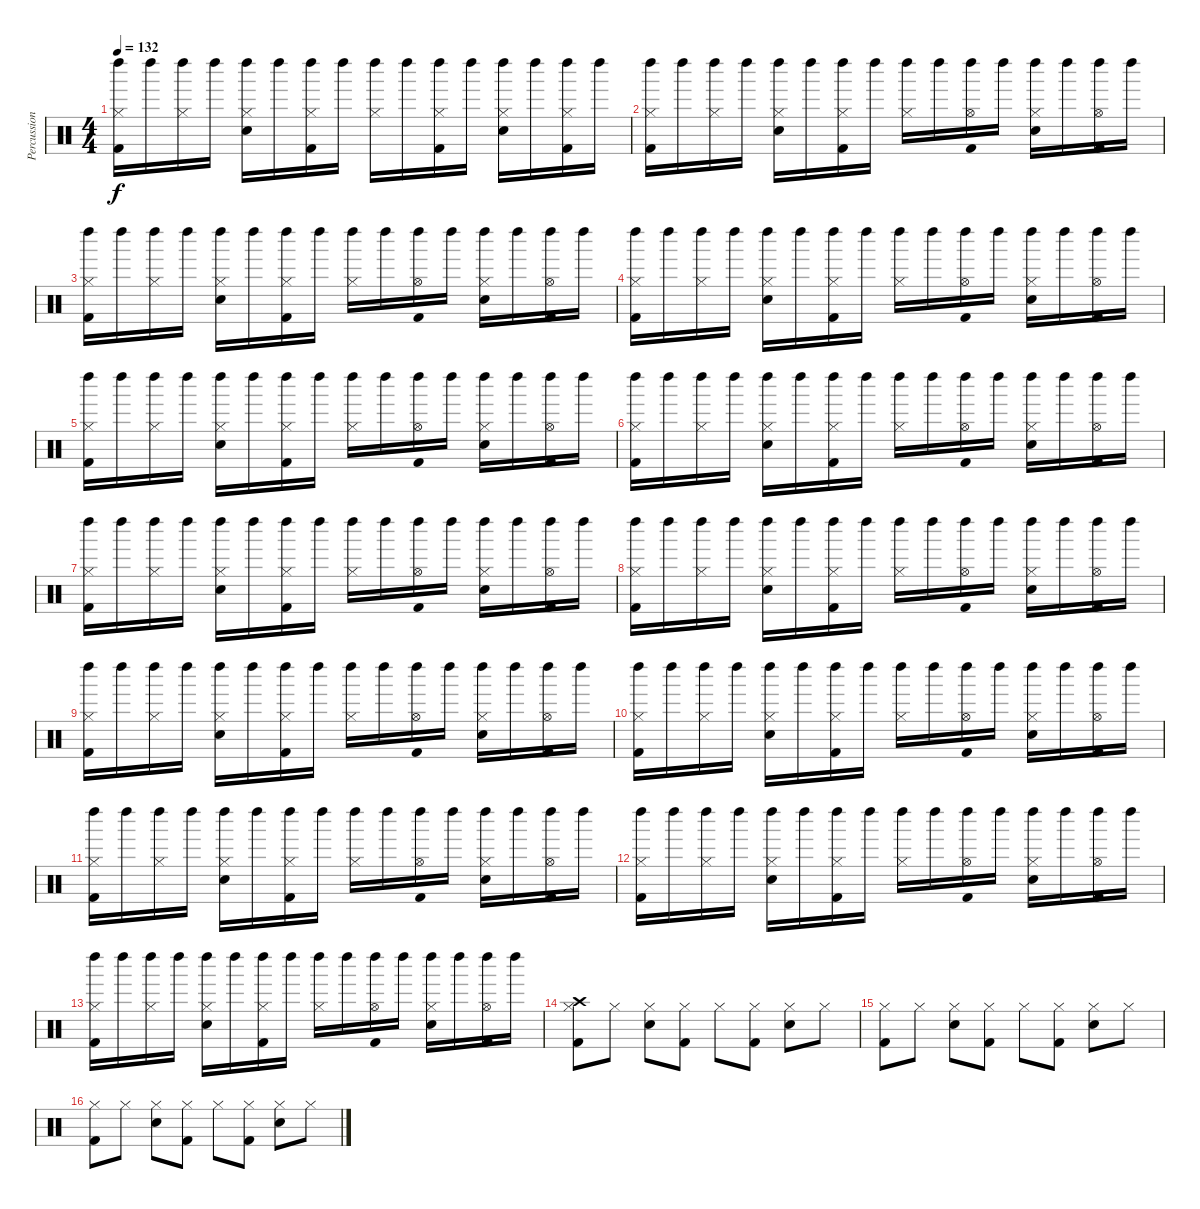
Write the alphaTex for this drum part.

\track ("Percussion" "Percussion") {instrument percussion}
\staff {score}
\articulation defaults
\ts (4 4)
\tempo 132
\clef neutral
\ks c
("Left Maraca (hit)" "Hi-Hat (closed)" "Kick (hit) 2").16{dy f} "Left Maraca (hit)".16 ("Left Maraca (hit)" "Hi-Hat (closed)").16 "Left Maraca (hit)".16 ("Left Maraca (hit)" "Hi-Hat (closed)" "Snare (hit) 2").16 "Left Maraca (hit)".16 ("Left Maraca (hit)" "Hi-Hat (closed)" "Kick (hit) 2").16 "Left Maraca (hit)".16 ("Left Maraca (hit)" "Hi-Hat (closed)").16 "Left Maraca (hit)".16 ("Left Maraca (hit)" "Hi-Hat (closed)" "Kick (hit) 2").16 "Left Maraca (hit)".16 ("Left Maraca (hit)" "Hi-Hat (closed)" "Snare (hit) 2").16 "Left Maraca (hit)".16 ("Left Maraca (hit)" "Hi-Hat (closed)" "Kick (hit) 2").16 "Left Maraca (hit)".16 |
("Left Maraca (hit)" "Hi-Hat (closed)" "Kick (hit) 2").16 "Left Maraca (hit)".16 ("Left Maraca (hit)" "Hi-Hat (closed)").16 "Left Maraca (hit)".16 ("Left Maraca (hit)" "Hi-Hat (closed)" "Snare (hit) 2").16 "Left Maraca (hit)".16 ("Left Maraca (hit)" "Hi-Hat (closed)" "Kick (hit) 2").16 "Left Maraca (hit)".16 ("Left Maraca (hit)" "Hi-Hat (closed)").16 "Left Maraca (hit)".16 ("Left Maraca (hit)" "Hi-Hat (open)" "Kick (hit) 2").16 "Left Maraca (hit)".16 ("Left Maraca (hit)" "Hi-Hat (closed)" "Snare (hit) 2").16 "Left Maraca (hit)".16 ("Left Maraca (hit)" "Hi-Hat (open)" "Kick (hit) 2").16 "Left Maraca (hit)".16 |
("Left Maraca (hit)" "Hi-Hat (closed)" "Kick (hit) 2").16 "Left Maraca (hit)".16 ("Left Maraca (hit)" "Hi-Hat (closed)").16 "Left Maraca (hit)".16 ("Left Maraca (hit)" "Hi-Hat (closed)" "Snare (hit) 2").16 "Left Maraca (hit)".16 ("Left Maraca (hit)" "Hi-Hat (closed)" "Kick (hit) 2").16 "Left Maraca (hit)".16 ("Left Maraca (hit)" "Hi-Hat (closed)").16 "Left Maraca (hit)".16 ("Left Maraca (hit)" "Hi-Hat (open)" "Kick (hit) 2").16 "Left Maraca (hit)".16 ("Left Maraca (hit)" "Hi-Hat (closed)" "Snare (hit) 2").16 "Left Maraca (hit)".16 ("Left Maraca (hit)" "Hi-Hat (open)" "Kick (hit) 2").16 "Left Maraca (hit)".16 |
("Left Maraca (hit)" "Hi-Hat (closed)" "Kick (hit) 2").16 "Left Maraca (hit)".16 ("Left Maraca (hit)" "Hi-Hat (closed)").16 "Left Maraca (hit)".16 ("Left Maraca (hit)" "Hi-Hat (closed)" "Snare (hit) 2").16 "Left Maraca (hit)".16 ("Left Maraca (hit)" "Hi-Hat (closed)" "Kick (hit) 2").16 "Left Maraca (hit)".16 ("Left Maraca (hit)" "Hi-Hat (closed)").16 "Left Maraca (hit)".16 ("Left Maraca (hit)" "Hi-Hat (open)" "Kick (hit) 2").16 "Left Maraca (hit)".16 ("Left Maraca (hit)" "Hi-Hat (closed)" "Snare (hit) 2").16 "Left Maraca (hit)".16 ("Left Maraca (hit)" "Hi-Hat (open)" "Kick (hit) 2").16 "Left Maraca (hit)".16 |
("Left Maraca (hit)" "Hi-Hat (closed)" "Kick (hit) 2").16 "Left Maraca (hit)".16 ("Left Maraca (hit)" "Hi-Hat (closed)").16 "Left Maraca (hit)".16 ("Left Maraca (hit)" "Hi-Hat (closed)" "Snare (hit) 2").16 "Left Maraca (hit)".16 ("Left Maraca (hit)" "Hi-Hat (closed)" "Kick (hit) 2").16 "Left Maraca (hit)".16 ("Left Maraca (hit)" "Hi-Hat (closed)").16 "Left Maraca (hit)".16 ("Left Maraca (hit)" "Hi-Hat (open)" "Kick (hit) 2").16 "Left Maraca (hit)".16 ("Left Maraca (hit)" "Hi-Hat (closed)" "Snare (hit) 2").16 "Left Maraca (hit)".16 ("Left Maraca (hit)" "Hi-Hat (open)" "Kick (hit) 2").16 "Left Maraca (hit)".16 |
("Left Maraca (hit)" "Hi-Hat (closed)" "Kick (hit) 2").16 "Left Maraca (hit)".16 ("Left Maraca (hit)" "Hi-Hat (closed)").16 "Left Maraca (hit)".16 ("Left Maraca (hit)" "Hi-Hat (closed)" "Snare (hit) 2").16 "Left Maraca (hit)".16 ("Left Maraca (hit)" "Hi-Hat (closed)" "Kick (hit) 2").16 "Left Maraca (hit)".16 ("Left Maraca (hit)" "Hi-Hat (closed)").16 "Left Maraca (hit)".16 ("Left Maraca (hit)" "Hi-Hat (open)" "Kick (hit) 2").16 "Left Maraca (hit)".16 ("Left Maraca (hit)" "Hi-Hat (closed)" "Snare (hit) 2").16 "Left Maraca (hit)".16 ("Left Maraca (hit)" "Hi-Hat (open)" "Kick (hit) 2").16 "Left Maraca (hit)".16 |
("Left Maraca (hit)" "Hi-Hat (closed)" "Kick (hit) 2").16 "Left Maraca (hit)".16 ("Left Maraca (hit)" "Hi-Hat (closed)").16 "Left Maraca (hit)".16 ("Left Maraca (hit)" "Hi-Hat (closed)" "Snare (hit) 2").16 "Left Maraca (hit)".16 ("Left Maraca (hit)" "Hi-Hat (closed)" "Kick (hit) 2").16 "Left Maraca (hit)".16 ("Left Maraca (hit)" "Hi-Hat (closed)").16 "Left Maraca (hit)".16 ("Left Maraca (hit)" "Hi-Hat (open)" "Kick (hit) 2").16 "Left Maraca (hit)".16 ("Left Maraca (hit)" "Hi-Hat (closed)" "Snare (hit) 2").16 "Left Maraca (hit)".16 ("Left Maraca (hit)" "Hi-Hat (open)" "Kick (hit) 2").16 "Left Maraca (hit)".16 |
("Left Maraca (hit)" "Hi-Hat (closed)" "Kick (hit) 2").16 "Left Maraca (hit)".16 ("Left Maraca (hit)" "Hi-Hat (closed)").16 "Left Maraca (hit)".16 ("Left Maraca (hit)" "Hi-Hat (closed)" "Snare (hit) 2").16 "Left Maraca (hit)".16 ("Left Maraca (hit)" "Hi-Hat (closed)" "Kick (hit) 2").16 "Left Maraca (hit)".16 ("Left Maraca (hit)" "Hi-Hat (closed)").16 "Left Maraca (hit)".16 ("Left Maraca (hit)" "Hi-Hat (open)" "Kick (hit) 2").16 "Left Maraca (hit)".16 ("Left Maraca (hit)" "Hi-Hat (closed)" "Snare (hit) 2").16 "Left Maraca (hit)".16 ("Left Maraca (hit)" "Hi-Hat (open)" "Kick (hit) 2").16 "Left Maraca (hit)".16 |
("Left Maraca (hit)" "Hi-Hat (closed)" "Kick (hit) 2").16 "Left Maraca (hit)".16 ("Left Maraca (hit)" "Hi-Hat (closed)").16 "Left Maraca (hit)".16 ("Left Maraca (hit)" "Hi-Hat (closed)" "Snare (hit) 2").16 "Left Maraca (hit)".16 ("Left Maraca (hit)" "Hi-Hat (closed)" "Kick (hit) 2").16 "Left Maraca (hit)".16 ("Left Maraca (hit)" "Hi-Hat (closed)").16 "Left Maraca (hit)".16 ("Left Maraca (hit)" "Hi-Hat (open)" "Kick (hit) 2").16 "Left Maraca (hit)".16 ("Left Maraca (hit)" "Hi-Hat (closed)" "Snare (hit) 2").16 "Left Maraca (hit)".16 ("Left Maraca (hit)" "Hi-Hat (open)" "Kick (hit) 2").16 "Left Maraca (hit)".16 |
("Left Maraca (hit)" "Hi-Hat (closed)" "Kick (hit) 2").16 "Left Maraca (hit)".16 ("Left Maraca (hit)" "Hi-Hat (closed)").16 "Left Maraca (hit)".16 ("Left Maraca (hit)" "Hi-Hat (closed)" "Snare (hit) 2").16 "Left Maraca (hit)".16 ("Left Maraca (hit)" "Hi-Hat (closed)" "Kick (hit) 2").16 "Left Maraca (hit)".16 ("Left Maraca (hit)" "Hi-Hat (closed)").16 "Left Maraca (hit)".16 ("Left Maraca (hit)" "Hi-Hat (open)" "Kick (hit) 2").16 "Left Maraca (hit)".16 ("Left Maraca (hit)" "Hi-Hat (closed)" "Snare (hit) 2").16 "Left Maraca (hit)".16 ("Left Maraca (hit)" "Hi-Hat (open)" "Kick (hit) 2").16 "Left Maraca (hit)".16 |
("Left Maraca (hit)" "Hi-Hat (closed)" "Kick (hit) 2").16 "Left Maraca (hit)".16 ("Left Maraca (hit)" "Hi-Hat (closed)").16 "Left Maraca (hit)".16 ("Left Maraca (hit)" "Hi-Hat (closed)" "Snare (hit) 2").16 "Left Maraca (hit)".16 ("Left Maraca (hit)" "Hi-Hat (closed)" "Kick (hit) 2").16 "Left Maraca (hit)".16 ("Left Maraca (hit)" "Hi-Hat (closed)").16 "Left Maraca (hit)".16 ("Left Maraca (hit)" "Hi-Hat (open)" "Kick (hit) 2").16 "Left Maraca (hit)".16 ("Left Maraca (hit)" "Hi-Hat (closed)" "Snare (hit) 2").16 "Left Maraca (hit)".16 ("Left Maraca (hit)" "Hi-Hat (open)" "Kick (hit) 2").16 "Left Maraca (hit)".16 |
("Left Maraca (hit)" "Hi-Hat (closed)" "Kick (hit) 2").16 "Left Maraca (hit)".16 ("Left Maraca (hit)" "Hi-Hat (closed)").16 "Left Maraca (hit)".16 ("Left Maraca (hit)" "Hi-Hat (closed)" "Snare (hit) 2").16 "Left Maraca (hit)".16 ("Left Maraca (hit)" "Hi-Hat (closed)" "Kick (hit) 2").16 "Left Maraca (hit)".16 ("Left Maraca (hit)" "Hi-Hat (closed)").16 "Left Maraca (hit)".16 ("Left Maraca (hit)" "Hi-Hat (open)" "Kick (hit) 2").16 "Left Maraca (hit)".16 ("Left Maraca (hit)" "Hi-Hat (closed)" "Snare (hit) 2").16 "Left Maraca (hit)".16 ("Left Maraca (hit)" "Hi-Hat (open)" "Kick (hit) 2").16 "Left Maraca (hit)".16 |
("Left Maraca (hit)" "Hi-Hat (closed)" "Kick (hit) 2").16 "Left Maraca (hit)".16 ("Left Maraca (hit)" "Hi-Hat (closed)").16 "Left Maraca (hit)".16 ("Left Maraca (hit)" "Hi-Hat (closed)" "Snare (hit) 2").16 "Left Maraca (hit)".16 ("Left Maraca (hit)" "Hi-Hat (closed)" "Kick (hit) 2").16 "Left Maraca (hit)".16 ("Left Maraca (hit)" "Hi-Hat (closed)").16 "Left Maraca (hit)".16 ("Left Maraca (hit)" "Hi-Hat (open)" "Kick (hit) 2").16 "Left Maraca (hit)".16 ("Left Maraca (hit)" "Hi-Hat (closed)" "Snare (hit) 2").16 "Left Maraca (hit)".16 ("Left Maraca (hit)" "Hi-Hat (open)" "Kick (hit) 2").16 "Left Maraca (hit)".16 |
("Crash high (hit)" "Hi-Hat (closed)" "Kick (hit) 2").8 "Hi-Hat (closed)".8 ("Hi-Hat (closed)" "Snare (hit) 2").8 ("Hi-Hat (closed)" "Kick (hit) 2").8 "Hi-Hat (closed)".8 ("Hi-Hat (closed)" "Kick (hit) 2").8 ("Hi-Hat (closed)" "Snare (hit) 2").8 "Hi-Hat (closed)".8 |
("Hi-Hat (closed)" "Kick (hit) 2").8 "Hi-Hat (closed)".8 ("Hi-Hat (closed)" "Snare (hit) 2").8 ("Hi-Hat (closed)" "Kick (hit) 2").8 "Hi-Hat (closed)".8 ("Hi-Hat (closed)" "Kick (hit) 2").8 ("Hi-Hat (closed)" "Snare (hit) 2").8 "Hi-Hat (closed)".8 |
("Hi-Hat (closed)" "Kick (hit) 2").8 "Hi-Hat (closed)".8 ("Hi-Hat (closed)" "Snare (hit) 2").8 ("Hi-Hat (closed)" "Kick (hit) 2").8 "Hi-Hat (closed)".8 ("Hi-Hat (closed)" "Kick (hit) 2").8 ("Hi-Hat (closed)" "Snare (hit) 2").8 "Hi-Hat (closed)".8
